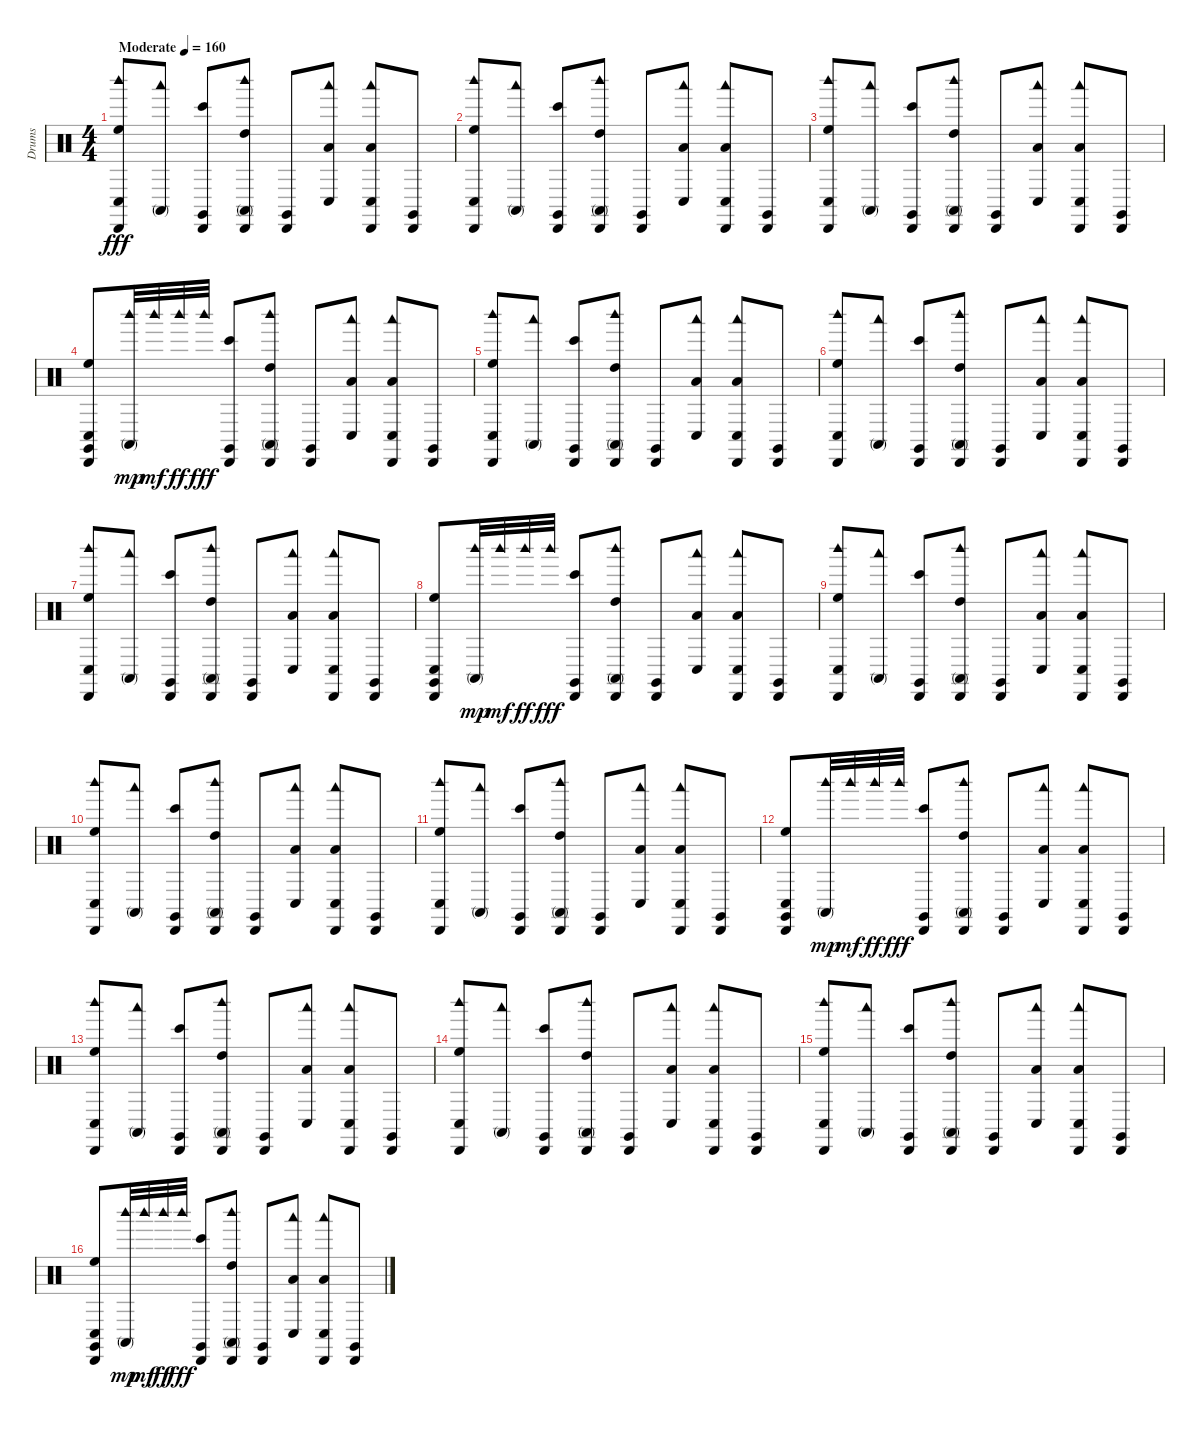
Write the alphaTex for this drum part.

\track ("Drums" "Drums") {instrument percussion}
\staff {score}
\articulation defaults
\ts (4 4)
\tempo (160 "Moderate")
\clef neutral
\ks c
("Woodblock high (hit)" "Conga low (hit)" "High Floor Tom (hit)" "Cabasa (hit)").8{dy fff} ("Woodblock low (hit)" "Conga high (mute)").8 ("Claves (hit)" "Bongo High (hit)" "Cabasa (hit)").8 ("Woodblock high (hit)" "High Tom (hit)" "Conga high (mute)" "Cabasa (hit)").8 ("Claves (hit)" "Cabasa (hit)").8 ("Conga low (hit)" "Low Tom (hit)" "Woodblock low (hit)").8 ("Conga low (hit)" "Low Tom (hit)" "Cabasa (hit)" "Woodblock low (hit)").8 ("Cabasa (hit)" "Claves (hit)").8 |
("Woodblock high (hit)" "Conga low (hit)" "High Floor Tom (hit)" "Cabasa (hit)").8 ("Woodblock low (hit)" "Conga high (mute)").8 ("Claves (hit)" "Bongo High (hit)" "Cabasa (hit)").8 ("Woodblock high (hit)" "High Tom (hit)" "Conga high (mute)" "Cabasa (hit)").8 ("Claves (hit)" "Cabasa (hit)").8 ("Conga low (hit)" "Low Tom (hit)" "Woodblock low (hit)").8 ("Conga low (hit)" "Low Tom (hit)" "Cabasa (hit)" "Woodblock low (hit)").8 ("Cabasa (hit)" "Claves (hit)").8 |
("Woodblock high (hit)" "Conga low (hit)" "High Floor Tom (hit)" "Cabasa (hit)").8 ("Woodblock low (hit)" "Conga high (mute)").8 ("Claves (hit)" "Bongo High (hit)" "Cabasa (hit)").8 ("Woodblock high (hit)" "High Tom (hit)" "Conga high (mute)" "Cabasa (hit)").8 ("Claves (hit)" "Cabasa (hit)").8 ("Conga low (hit)" "Low Tom (hit)" "Woodblock low (hit)").8 ("Conga low (hit)" "Low Tom (hit)" "Cabasa (hit)" "Woodblock low (hit)").8 ("Cabasa (hit)" "Claves (hit)").8 |
("Conga low (hit)" "High Floor Tom (hit)" "Cabasa (hit)" "Claves (hit)").8 ("Conga high (mute)" "Woodblock high (hit)").32{dy mp} "Woodblock high (hit)".32{dy mf} "Woodblock high (hit)".32{dy ff} "Woodblock high (hit)".32{dy fff} ("Claves (hit)" "Bongo High (hit)" "Cabasa (hit)").8 ("Woodblock high (hit)" "High Tom (hit)" "Conga high (mute)" "Cabasa (hit)").8 ("Claves (hit)" "Cabasa (hit)").8 ("Conga low (hit)" "Low Tom (hit)" "Woodblock low (hit)").8 ("Conga low (hit)" "Low Tom (hit)" "Cabasa (hit)" "Woodblock low (hit)").8 ("Cabasa (hit)" "Claves (hit)").8 |
("Woodblock high (hit)" "Conga low (hit)" "High Floor Tom (hit)" "Cabasa (hit)").8 ("Woodblock low (hit)" "Conga high (mute)").8 ("Claves (hit)" "Bongo High (hit)" "Cabasa (hit)").8 ("Woodblock high (hit)" "High Tom (hit)" "Conga high (mute)" "Cabasa (hit)").8 ("Claves (hit)" "Cabasa (hit)").8 ("Conga low (hit)" "Low Tom (hit)" "Woodblock low (hit)").8 ("Conga low (hit)" "Low Tom (hit)" "Cabasa (hit)" "Woodblock low (hit)").8 ("Cabasa (hit)" "Claves (hit)").8 |
("Woodblock high (hit)" "Conga low (hit)" "High Floor Tom (hit)" "Cabasa (hit)").8 ("Woodblock low (hit)" "Conga high (mute)").8 ("Claves (hit)" "Bongo High (hit)" "Cabasa (hit)").8 ("Woodblock high (hit)" "High Tom (hit)" "Conga high (mute)" "Cabasa (hit)").8 ("Claves (hit)" "Cabasa (hit)").8 ("Conga low (hit)" "Low Tom (hit)" "Woodblock low (hit)").8 ("Conga low (hit)" "Low Tom (hit)" "Cabasa (hit)" "Woodblock low (hit)").8 ("Cabasa (hit)" "Claves (hit)").8 |
("Woodblock high (hit)" "Conga low (hit)" "High Floor Tom (hit)" "Cabasa (hit)").8 ("Woodblock low (hit)" "Conga high (mute)").8 ("Claves (hit)" "Bongo High (hit)" "Cabasa (hit)").8 ("Woodblock high (hit)" "High Tom (hit)" "Conga high (mute)" "Cabasa (hit)").8 ("Claves (hit)" "Cabasa (hit)").8 ("Conga low (hit)" "Low Tom (hit)" "Woodblock low (hit)").8 ("Conga low (hit)" "Low Tom (hit)" "Cabasa (hit)" "Woodblock low (hit)").8 ("Cabasa (hit)" "Claves (hit)").8 |
("Conga low (hit)" "High Floor Tom (hit)" "Cabasa (hit)" "Claves (hit)").8 ("Conga high (mute)" "Woodblock high (hit)").32{dy mp} "Woodblock high (hit)".32{dy mf} "Woodblock high (hit)".32{dy ff} "Woodblock high (hit)".32{dy fff} ("Claves (hit)" "Bongo High (hit)" "Cabasa (hit)").8 ("Woodblock high (hit)" "High Tom (hit)" "Conga high (mute)" "Cabasa (hit)").8 ("Claves (hit)" "Cabasa (hit)").8 ("Conga low (hit)" "Low Tom (hit)" "Woodblock low (hit)").8 ("Conga low (hit)" "Low Tom (hit)" "Cabasa (hit)" "Woodblock low (hit)").8 ("Cabasa (hit)" "Claves (hit)").8 |
("Woodblock high (hit)" "Conga low (hit)" "High Floor Tom (hit)" "Cabasa (hit)").8 ("Woodblock low (hit)" "Conga high (mute)").8 ("Claves (hit)" "Bongo High (hit)" "Cabasa (hit)").8 ("Woodblock high (hit)" "High Tom (hit)" "Conga high (mute)" "Cabasa (hit)").8 ("Claves (hit)" "Cabasa (hit)").8 ("Conga low (hit)" "Low Tom (hit)" "Woodblock low (hit)").8 ("Conga low (hit)" "Low Tom (hit)" "Cabasa (hit)" "Woodblock low (hit)").8 ("Cabasa (hit)" "Claves (hit)").8 |
("Woodblock high (hit)" "Conga low (hit)" "High Floor Tom (hit)" "Cabasa (hit)").8 ("Woodblock low (hit)" "Conga high (mute)").8 ("Claves (hit)" "Bongo High (hit)" "Cabasa (hit)").8 ("Woodblock high (hit)" "High Tom (hit)" "Conga high (mute)" "Cabasa (hit)").8 ("Claves (hit)" "Cabasa (hit)").8 ("Conga low (hit)" "Low Tom (hit)" "Woodblock low (hit)").8 ("Conga low (hit)" "Low Tom (hit)" "Cabasa (hit)" "Woodblock low (hit)").8 ("Cabasa (hit)" "Claves (hit)").8 |
("Woodblock high (hit)" "Conga low (hit)" "High Floor Tom (hit)" "Cabasa (hit)").8 ("Woodblock low (hit)" "Conga high (mute)").8 ("Claves (hit)" "Bongo High (hit)" "Cabasa (hit)").8 ("Woodblock high (hit)" "High Tom (hit)" "Conga high (mute)" "Cabasa (hit)").8 ("Claves (hit)" "Cabasa (hit)").8 ("Conga low (hit)" "Low Tom (hit)" "Woodblock low (hit)").8 ("Conga low (hit)" "Low Tom (hit)" "Cabasa (hit)" "Woodblock low (hit)").8 ("Cabasa (hit)" "Claves (hit)").8 |
("Conga low (hit)" "High Floor Tom (hit)" "Cabasa (hit)" "Claves (hit)").8 ("Conga high (mute)" "Woodblock high (hit)").32{dy mp} "Woodblock high (hit)".32{dy mf} "Woodblock high (hit)".32{dy ff} "Woodblock high (hit)".32{dy fff} ("Claves (hit)" "Bongo High (hit)" "Cabasa (hit)").8 ("Woodblock high (hit)" "High Tom (hit)" "Conga high (mute)" "Cabasa (hit)").8 ("Claves (hit)" "Cabasa (hit)").8 ("Conga low (hit)" "Low Tom (hit)" "Woodblock low (hit)").8 ("Conga low (hit)" "Low Tom (hit)" "Cabasa (hit)" "Woodblock low (hit)").8 ("Cabasa (hit)" "Claves (hit)").8 |
("Woodblock high (hit)" "Conga low (hit)" "High Floor Tom (hit)" "Cabasa (hit)").8 ("Woodblock low (hit)" "Conga high (mute)").8 ("Claves (hit)" "Bongo High (hit)" "Cabasa (hit)").8 ("Woodblock high (hit)" "High Tom (hit)" "Conga high (mute)" "Cabasa (hit)").8 ("Claves (hit)" "Cabasa (hit)").8 ("Conga low (hit)" "Low Tom (hit)" "Woodblock low (hit)").8 ("Conga low (hit)" "Low Tom (hit)" "Cabasa (hit)" "Woodblock low (hit)").8 ("Cabasa (hit)" "Claves (hit)").8 |
("Woodblock high (hit)" "Conga low (hit)" "High Floor Tom (hit)" "Cabasa (hit)").8 ("Woodblock low (hit)" "Conga high (mute)").8 ("Claves (hit)" "Bongo High (hit)" "Cabasa (hit)").8 ("Woodblock high (hit)" "High Tom (hit)" "Conga high (mute)" "Cabasa (hit)").8 ("Claves (hit)" "Cabasa (hit)").8 ("Conga low (hit)" "Low Tom (hit)" "Woodblock low (hit)").8 ("Conga low (hit)" "Low Tom (hit)" "Cabasa (hit)" "Woodblock low (hit)").8 ("Cabasa (hit)" "Claves (hit)").8 |
("Woodblock high (hit)" "Conga low (hit)" "High Floor Tom (hit)" "Cabasa (hit)").8 ("Woodblock low (hit)" "Conga high (mute)").8 ("Claves (hit)" "Bongo High (hit)" "Cabasa (hit)").8 ("Woodblock high (hit)" "High Tom (hit)" "Conga high (mute)" "Cabasa (hit)").8 ("Claves (hit)" "Cabasa (hit)").8 ("Conga low (hit)" "Low Tom (hit)" "Woodblock low (hit)").8 ("Conga low (hit)" "Low Tom (hit)" "Cabasa (hit)" "Woodblock low (hit)").8 ("Cabasa (hit)" "Claves (hit)").8 |
("Conga low (hit)" "High Floor Tom (hit)" "Cabasa (hit)" "Claves (hit)").8 ("Conga high (mute)" "Woodblock high (hit)").32{dy mp} "Woodblock high (hit)".32{dy mf} "Woodblock high (hit)".32{dy ff} "Woodblock high (hit)".32{dy fff} ("Claves (hit)" "Bongo High (hit)" "Cabasa (hit)").8 ("Woodblock high (hit)" "High Tom (hit)" "Conga high (mute)" "Cabasa (hit)").8 ("Claves (hit)" "Cabasa (hit)").8 ("Conga low (hit)" "Low Tom (hit)" "Woodblock low (hit)").8 ("Conga low (hit)" "Low Tom (hit)" "Cabasa (hit)" "Woodblock low (hit)").8 ("Cabasa (hit)" "Claves (hit)").8
